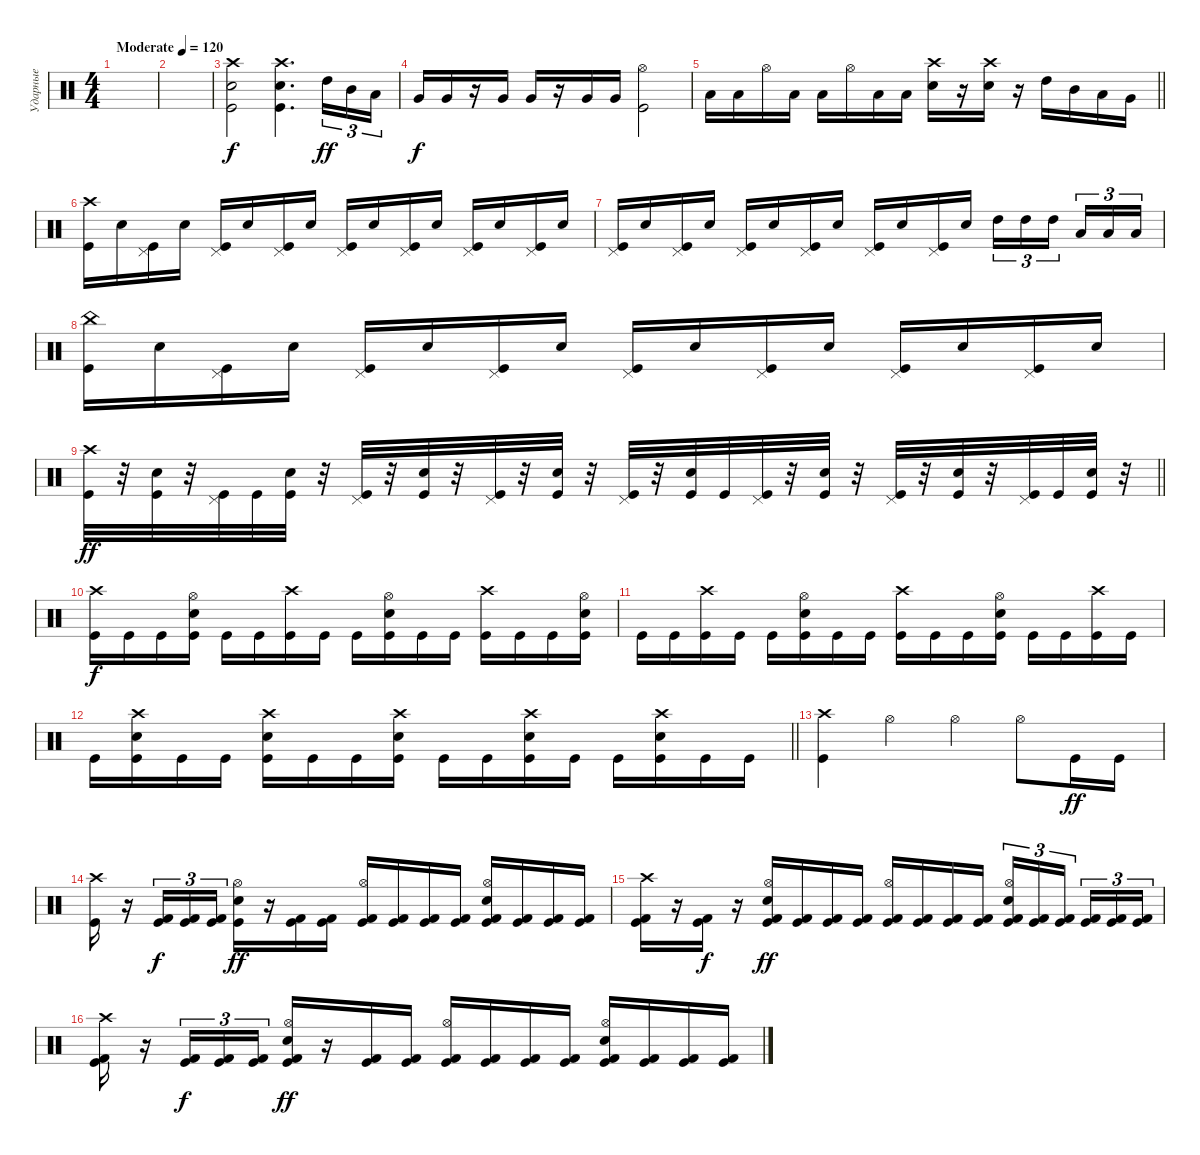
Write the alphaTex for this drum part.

\track ("Ударные" "Ударные") {instrument percussion}
\staff {score}
\articulation defaults
\ts (4 4)
\tempo (120 "Moderate")
\clef neutral
\ks c
|
|
("Crash high (hit)" "Kick (hit)" "Electric Snare (hit)").2 ("Crash high (hit)" "Kick (hit)" "Electric Snare (hit)").4{d} "High Tom (hit)".16{tu (3 2) dy ff} "Mid Tom (hit)".16{tu (3 2)} "Low Tom (hit)".16{tu (3 2)} |
"Very Low Tom (hit)".16{dy f} "Very Low Tom (hit)".16 r.16 "Very Low Tom (hit)".16 "Very Low Tom (hit)".16 r.16 "Very Low Tom (hit)".16 "Very Low Tom (hit)".16 ("Hi-Hat (open)" "Kick (hit)").2 |
\barLineRight lightlight "Low Tom (hit)".16 "Low Tom (hit)".16 "Hi-Hat (open)".16 "Low Tom (hit)".16 "Low Tom (hit)".16 "Hi-Hat (open)".16 "Low Tom (hit)".16 "Low Tom (hit)".16
("Crash high (hit)" "Electric Snare (hit)").16 r.16 ("Crash high (hit)" "Electric Snare (hit)").16 r.16 "High Tom (hit)".16 "Mid Tom (hit)".16 "Low Tom (hit)".16 "Very Low Tom (hit)".16 |
("Kick (hit)" "Crash high (hit)").16 "Electric Snare (hit)".16 ("Kick (hit)" "Pedal Hi-Hat (hit)").16 "Electric Snare (hit)".16 ("Kick (hit)" "Pedal Hi-Hat (hit)").16 "Electric Snare (hit)".16 ("Kick (hit)" "Pedal Hi-Hat (hit)").16 "Electric Snare (hit)".16 ("Kick (hit)" "Pedal Hi-Hat (hit)").16 "Electric Snare (hit)".16 ("Kick (hit)" "Pedal Hi-Hat (hit)").16 "Electric Snare (hit)".16 ("Kick (hit)" "Pedal Hi-Hat (hit)").16 "Electric Snare (hit)".16 ("Kick (hit)" "Pedal Hi-Hat (hit)").16 "Electric Snare (hit)".16 |
("Kick (hit)" "Pedal Hi-Hat (hit)").16 "Electric Snare (hit)".16 ("Kick (hit)" "Pedal Hi-Hat (hit)").16 "Electric Snare (hit)".16 ("Kick (hit)" "Pedal Hi-Hat (hit)").16 "Electric Snare (hit)".16 ("Kick (hit)" "Pedal Hi-Hat (hit)").16 "Electric Snare (hit)".16 ("Kick (hit)" "Pedal Hi-Hat (hit)").16 "Electric Snare (hit)".16 ("Kick (hit)" "Pedal Hi-Hat (hit)").16 "Electric Snare (hit)".16 "High Tom (hit)".16{tu (3 2)} "High Tom (hit)".16{tu (3 2)} "High Tom (hit)".16{tu (3 2) beam splitsecondary} "Low Tom (hit)".16{tu (3 2)} "Low Tom (hit)".16{tu (3 2)} "Low Tom (hit)".16{tu (3 2)} |
("China (hit)" "Kick (hit)").16 "Electric Snare (hit)".16 ("Kick (hit)" "Pedal Hi-Hat (hit)").16 "Electric Snare (hit)".16 ("Kick (hit)" "Pedal Hi-Hat (hit)").16 "Electric Snare (hit)".16 ("Kick (hit)" "Pedal Hi-Hat (hit)").16 "Electric Snare (hit)".16 ("Kick (hit)" "Pedal Hi-Hat (hit)").16 "Electric Snare (hit)".16 ("Kick (hit)" "Pedal Hi-Hat (hit)").16 "Electric Snare (hit)".16 ("Kick (hit)" "Pedal Hi-Hat (hit)").16 "Electric Snare (hit)".16 ("Kick (hit)" "Pedal Hi-Hat (hit)").16 "Electric Snare (hit)".16 |
\barLineRight lightlight
("Crash high (hit)" "Kick (hit)").32{dy ff} r.32 ("Electric Snare (hit)" "Kick (hit)").32 r.32 ("Pedal Hi-Hat (hit)" "Kick (hit)").32 "Kick (hit)".32 ("Electric Snare (hit)" "Kick (hit)").32 r.32 ("Pedal Hi-Hat (hit)" "Kick (hit)").32 r.32 ("Electric Snare (hit)" "Kick (hit)").32 r.32 ("Pedal Hi-Hat (hit)" "Kick (hit)").32 r.32 ("Electric Snare (hit)" "Kick (hit)").32 r.32 ("Pedal Hi-Hat (hit)" "Kick (hit)").32 r.32 ("Electric Snare (hit)" "Kick (hit)").32 "Kick (hit)".32 ("Pedal Hi-Hat (hit)" "Kick (hit)").32 r.32 ("Electric Snare (hit)" "Kick (hit)").32 r.32 ("Pedal Hi-Hat (hit)" "Kick (hit)").32 r.32 ("Electric Snare (hit)" "Kick (hit)").32 r.32 ("Pedal Hi-Hat (hit)" "Kick (hit)").32 "Kick (hit)".32 ("Electric Snare (hit)" "Kick (hit)").32 r.32 |
("Crash high (hit)" "Kick (hit)").16{dy f} "Kick (hit)".16 "Kick (hit)".16 ("Hi-Hat (open)" "Kick (hit)" "Electric Snare (hit)").16 "Kick (hit)".16 "Kick (hit)".16 ("Crash high (hit)" "Kick (hit)").16 "Kick (hit)".16 "Kick (hit)".16 ("Hi-Hat (open)" "Kick (hit)" "Electric Snare (hit)").16 "Kick (hit)".16 "Kick (hit)".16 ("Crash high (hit)" "Kick (hit)").16 "Kick (hit)".16 "Kick (hit)".16 ("Hi-Hat (open)" "Kick (hit)" "Electric Snare (hit)").16 |
"Kick (hit)".16 "Kick (hit)".16 ("Crash high (hit)" "Kick (hit)").16 "Kick (hit)".16 "Kick (hit)".16 ("Hi-Hat (open)" "Kick (hit)" "Electric Snare (hit)").16 "Kick (hit)".16 "Kick (hit)".16 ("Crash high (hit)" "Kick (hit)").16 "Kick (hit)".16 "Kick (hit)".16 ("Electric Snare (hit)" "Kick (hit)" "Hi-Hat (open)").16 "Kick (hit)".16 "Kick (hit)".16 ("Crash high (hit)" "Kick (hit)").16 "Kick (hit)".16 |
\barLineRight lightlight "Kick (hit)".16
("Crash high (hit)" "Electric Snare (hit)" "Kick (hit)").16 "Kick (hit)".16 "Kick (hit)".16 ("Crash high (hit)" "Electric Snare (hit)" "Kick (hit)").16 "Kick (hit)".16 "Kick (hit)".16 ("Crash high (hit)" "Electric Snare (hit)" "Kick (hit)").16 "Kick (hit)".16 "Kick (hit)".16 ("Crash high (hit)" "Electric Snare (hit)" "Kick (hit)").16 "Kick (hit)".16 "Kick (hit)".16 ("Crash high (hit)" "Electric Snare (hit)" "Kick (hit)").16 "Kick (hit)".16 "Kick (hit)".16 |
("Crash high (hit)" "Kick (hit)").4 "Hi-Hat (open)".4 "Hi-Hat (open)".4 "Hi-Hat (open)".8 "Kick (hit)".16{dy ff} "Kick (hit)".16 |
("Crash high (hit)" "Kick (hit)").16 r.16 ("Kick (hit)" "Kick (hit) 2").16{tu (3 2) dy f} ("Kick (hit)" "Kick (hit) 2").16{tu (3 2)} ("Kick (hit)" "Kick (hit) 2").16{tu (3 2)} ("Hi-Hat (open)" "Electric Snare (hit)" "Kick (hit)").16{dy ff} r.16 ("Kick (hit)" "Kick (hit) 2").16 ("Kick (hit)" "Kick (hit) 2").16 ("Hi-Hat (open)" "Kick (hit)" "Kick (hit) 2").16 ("Kick (hit)" "Kick (hit) 2").16 ("Kick (hit)" "Kick (hit) 2").16 ("Kick (hit)" "Kick (hit) 2").16 ("Hi-Hat (open)" "Electric Snare (hit)" "Kick (hit)" "Kick (hit) 2").16 ("Kick (hit)" "Kick (hit) 2").16 ("Kick (hit)" "Kick (hit) 2").16 ("Kick (hit)" "Kick (hit) 2").16 |
("Crash high (hit)" "Kick (hit)" "Kick (hit) 2").16 r.16 ("Kick (hit)" "Kick (hit) 2").16{dy f} r.16 ("Hi-Hat (open)" "Electric Snare (hit)" "Kick (hit)" "Kick (hit) 2").16{dy ff} ("Kick (hit)" "Kick (hit) 2").16 ("Kick (hit)" "Kick (hit) 2").16 ("Kick (hit)" "Kick (hit) 2").16 ("Hi-Hat (open)" "Kick (hit)" "Kick (hit) 2").16 ("Kick (hit)" "Kick (hit) 2").16 ("Kick (hit)" "Kick (hit) 2").16 ("Kick (hit)" "Kick (hit) 2").16 ("Hi-Hat (open)" "Electric Snare (hit)" "Kick (hit)" "Kick (hit) 2").16{tu (3 2)} ("Kick (hit)" "Kick (hit) 2").16{tu (3 2)} ("Kick (hit)" "Kick (hit) 2").16{tu (3 2) beam splitsecondary} ("Kick (hit)" "Kick (hit) 2").16{tu (3 2)} ("Kick (hit)" "Kick (hit) 2").16{tu (3 2)} ("Kick (hit)" "Kick (hit) 2").16{tu (3 2)} |
("Crash high (hit)" "Kick (hit)" "Kick (hit) 2").16 r.16 ("Kick (hit)" "Kick (hit) 2").16{tu (3 2) dy f} ("Kick (hit)" "Kick (hit) 2").16{tu (3 2)} ("Kick (hit)" "Kick (hit) 2").16{tu (3 2)} ("Hi-Hat (open)" "Electric Snare (hit)" "Kick (hit)" "Kick (hit) 2").16{dy ff} r.16 ("Kick (hit)" "Kick (hit) 2").16 ("Kick (hit)" "Kick (hit) 2").16 ("Hi-Hat (open)" "Kick (hit)" "Kick (hit) 2").16 ("Kick (hit)" "Kick (hit) 2").16 ("Kick (hit)" "Kick (hit) 2").16 ("Kick (hit)" "Kick (hit) 2").16 ("Hi-Hat (open)" "Electric Snare (hit)" "Kick (hit)" "Kick (hit) 2").16 ("Kick (hit)" "Kick (hit) 2").16 ("Kick (hit)" "Kick (hit) 2").16 ("Kick (hit)" "Kick (hit) 2").16
